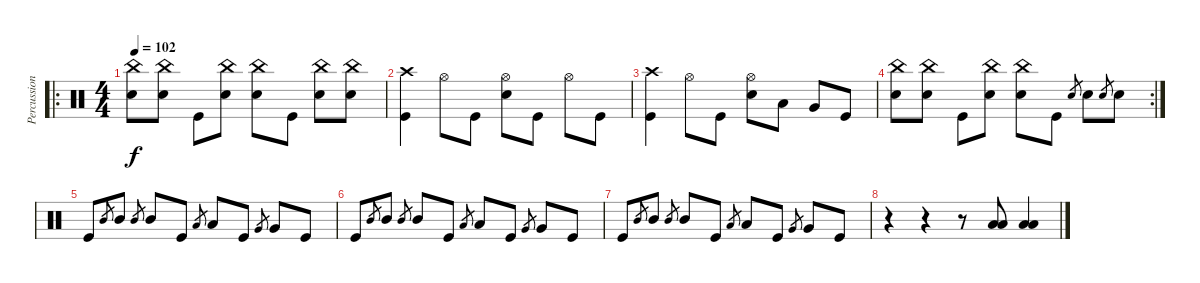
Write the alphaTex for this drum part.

\track ("Percussion" "Percussion") {instrument percussion}
\staff {score}
\articulation defaults
\ro
\ts (4 4)
\tempo 102
\clef neutral
\ks c
("China (hit)" "Electric Snare (hit)").8{dy f} ("China (hit)" "Electric Snare (hit)").8 "Kick (hit)".8 ("China (hit)" "Electric Snare (hit)").8 ("China (hit)" "Electric Snare (hit)").8 "Kick (hit)".8 ("China (hit)" "Electric Snare (hit)").8 ("China (hit)" "Electric Snare (hit)").8 |
("Crash high (hit)" "Kick (hit)").4 "Hi-Hat (open)".8 "Kick (hit)".8 ("Hi-Hat (open)" "Electric Snare (hit)").8 "Kick (hit)".8 "Hi-Hat (open)".8 "Kick (hit)".8 |
("Crash high (hit)" "Kick (hit)").4 "Hi-Hat (open)".8 "Kick (hit)".8 ("Hi-Hat (open)" "Electric Snare (hit)").8 "Low Tom (hit)".8 "Very Low Tom (hit)".8 "Kick (hit)".8 |
\rc 2
("China (hit)" "Electric Snare (hit)").8 ("China (hit)" "Electric Snare (hit)").8 "Kick (hit)".8 ("China (hit)" "Electric Snare (hit)").8 ("China (hit)" "Electric Snare (hit)").8 "Kick (hit)".8 "Electric Snare (hit)".8{gr} "Electric Snare (hit)".8 "Electric Snare (hit)".8{gr} "Electric Snare (hit)".8 |
"Kick (hit)".8 "Mid Tom (hit)".8{gr} "Mid Tom (hit)".8 "Mid Tom (hit)".8{gr} "Mid Tom (hit)".8 "Kick (hit)".8 "Low Tom (hit)".8{gr} "Low Tom (hit)".8 "Kick (hit)".8{volume 0} "Very Low Tom (hit)".8{gr} "Very Low Tom (hit)".8 "Kick (hit)".8 |
"Kick (hit)".8 "Mid Tom (hit)".8{gr} "Mid Tom (hit)".8 "Mid Tom (hit)".8{gr} "Mid Tom (hit)".8 "Kick (hit)".8 "Low Tom (hit)".8{gr} "Low Tom (hit)".8 "Kick (hit)".8{volume 0} "Very Low Tom (hit)".8{gr} "Very Low Tom (hit)".8 "Kick (hit)".8 |
"Kick (hit)".8 "Mid Tom (hit)".8{gr} "Mid Tom (hit)".8 "Mid Tom (hit)".8{gr} "Mid Tom (hit)".8 "Kick (hit)".8 "Low Tom (hit)".8{gr} "Low Tom (hit)".8 "Kick (hit)".8{volume 0} "Very Low Tom (hit)".8{gr} "Very Low Tom (hit)".8 "Kick (hit)".8 |
r.4 r.4 r.8 ("Low Tom (hit)" "Low Floor Tom (hit)").8 ("Low Tom (hit)" "Low Floor Tom (hit)").4
